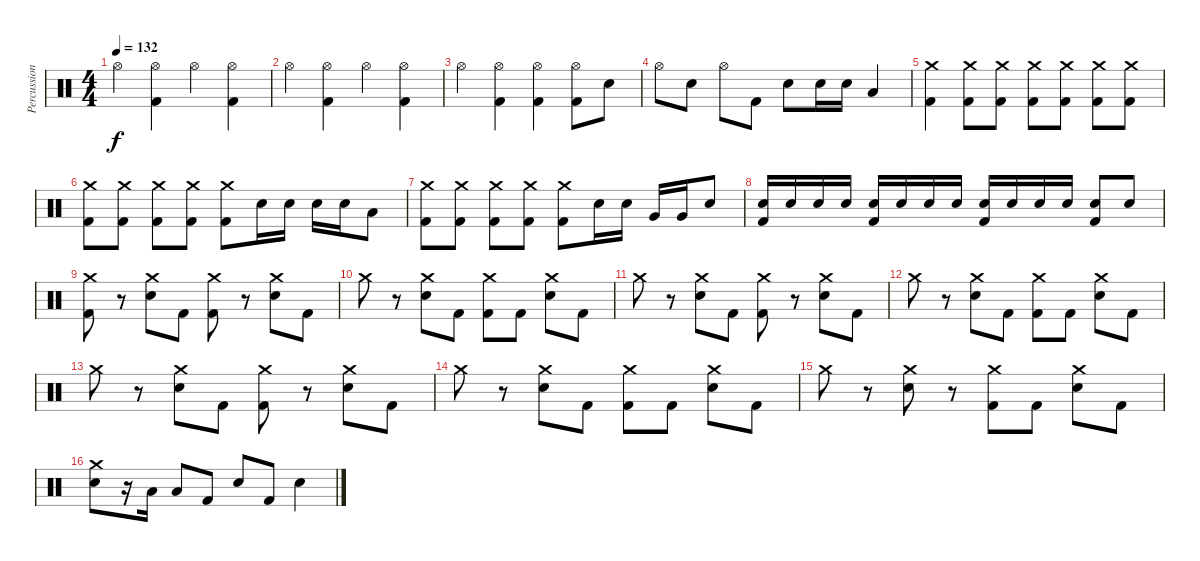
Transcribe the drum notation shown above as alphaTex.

\track ("Percussion" "Percussion") {instrument percussion}
\staff {score}
\articulation defaults
\ts (4 4)
\tempo 132
\clef neutral
\ks c "Hi-Hat (open)".4{dy f}
("Hi-Hat (open)" "Kick (hit) 2").4 "Hi-Hat (open)".4 ("Hi-Hat (open)" "Kick (hit) 2").4 |
"Hi-Hat (open)".4 ("Hi-Hat (open)" "Kick (hit) 2").4 "Hi-Hat (open)".4 ("Hi-Hat (open)" "Kick (hit) 2").4 |
"Hi-Hat (open)".4 ("Hi-Hat (open)" "Kick (hit) 2").4 ("Hi-Hat (open)" "Kick (hit) 2").4 ("Hi-Hat (open)" "Kick (hit) 2").8 "Snare (hit) 2".8 |
"Hi-Hat (open)".8 "Snare (hit) 2".8 "Hi-Hat (open)".8 "Kick (hit) 2".8 "Snare (hit) 2".8 "Snare (hit) 2".16 "Snare (hit) 2".16 "Low Floor Tom (hit)".4 |
("Crash medium (hit)" "Kick (hit) 2").4 ("Crash medium (hit)" "Kick (hit) 2").8 ("Crash medium (hit)" "Kick (hit) 2").8 ("Crash medium (hit)" "Kick (hit) 2").8 ("Crash medium (hit)" "Kick (hit) 2").8 ("Crash medium (hit)" "Kick (hit) 2").8 ("Crash medium (hit)" "Kick (hit) 2").8 |
("Crash medium (hit)" "Kick (hit) 2").8 ("Crash medium (hit)" "Kick (hit) 2").8 ("Crash medium (hit)" "Kick (hit) 2").8 ("Crash medium (hit)" "Kick (hit) 2").8 ("Crash medium (hit)" "Kick (hit) 2").8 "Snare (hit) 2".16 "Snare (hit) 2".16 "Snare (hit) 2".16 "Snare (hit) 2".16 "Low Floor Tom (hit)".8 |
("Crash medium (hit)" "Kick (hit) 2").8 ("Crash medium (hit)" "Kick (hit) 2").8 ("Crash medium (hit)" "Kick (hit) 2").8 ("Crash medium (hit)" "Kick (hit) 2").8 ("Crash medium (hit)" "Kick (hit) 2").8 "Snare (hit) 2".16 "Snare (hit) 2".16 "Very Low Tom (hit)".16 "Very Low Tom (hit)".16 "Snare (hit) 2".8 |
("Snare (hit) 2" "Kick (hit) 2").16 "Snare (hit) 2".16 "Snare (hit) 2".16 "Snare (hit) 2".16 ("Snare (hit) 2" "Kick (hit) 2").16 "Snare (hit) 2".16 "Snare (hit) 2".16 "Snare (hit) 2".16 ("Snare (hit) 2" "Kick (hit) 2").16 "Snare (hit) 2".16 "Snare (hit) 2".16 "Snare (hit) 2".16 ("Snare (hit) 2" "Kick (hit) 2").8 "Snare (hit) 2".8 |
("Crash medium (hit)" "Kick (hit) 2").8 r.8 ("Crash medium (hit)" "Snare (hit) 2").8 "Kick (hit) 2".8 ("Crash medium (hit)" "Kick (hit) 2").8 r.8 ("Crash medium (hit)" "Snare (hit) 2").8 "Kick (hit) 2".8 |
"Crash medium (hit)".8 r.8 ("Crash medium (hit)" "Snare (hit) 2").8 "Kick (hit) 2".8 ("Crash medium (hit)" "Kick (hit) 2").8 "Kick (hit) 2".8 ("Crash medium (hit)" "Snare (hit) 2").8 "Kick (hit) 2".8 |
"Crash medium (hit)".8 r.8 ("Crash medium (hit)" "Snare (hit) 2").8 "Kick (hit) 2".8 ("Crash medium (hit)" "Kick (hit) 2").8 r.8 ("Crash medium (hit)" "Snare (hit) 2").8 "Kick (hit) 2".8 |
"Crash medium (hit)".8 r.8 ("Crash medium (hit)" "Snare (hit) 2").8 "Kick (hit) 2".8 ("Crash medium (hit)" "Kick (hit) 2").8 "Kick (hit) 2".8 ("Crash medium (hit)" "Snare (hit) 2").8 "Kick (hit) 2".8 |
"Crash medium (hit)".8 r.8 ("Crash medium (hit)" "Snare (hit) 2").8 "Kick (hit) 2".8 ("Crash medium (hit)" "Kick (hit) 2").8 r.8 ("Crash medium (hit)" "Snare (hit) 2").8 "Kick (hit) 2".8 |
"Crash medium (hit)".8 r.8 ("Crash medium (hit)" "Snare (hit) 2").8 "Kick (hit) 2".8 ("Crash medium (hit)" "Kick (hit) 2").8 "Kick (hit) 2".8 ("Crash medium (hit)" "Snare (hit) 2").8 "Kick (hit) 2".8 |
"Crash medium (hit)".8 r.8 ("Crash medium (hit)" "Snare (hit) 2").8 r.8 ("Crash medium (hit)" "Kick (hit) 2").8 "Kick (hit) 2".8 ("Crash medium (hit)" "Snare (hit) 2").8 "Kick (hit) 2".8 |
("Crash medium (hit)" "Snare (hit) 2").8 r.16 "Low Floor Tom (hit)".16 "Low Floor Tom (hit)".8 "Kick (hit) 2".8 "Snare (hit) 2".8 "Kick (hit) 2".8 "Snare (hit) 2".4
